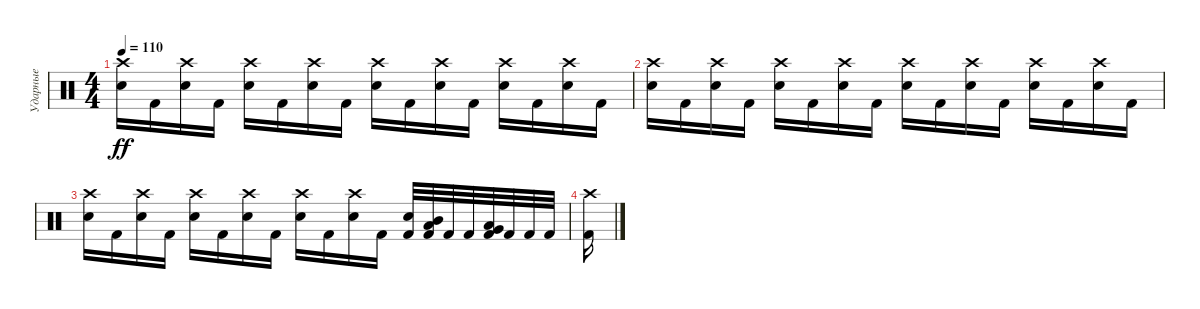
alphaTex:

\track ("Ударные" "Ударные") {instrument percussion}
\staff {score}
\articulation defaults
\ts (4 4)
\tempo 110
\clef neutral
\ks c
("Crash high (hit)" "Snare (hit) 2").16{dy ff} "Kick (hit) 2".16 ("Crash high (hit)" "Snare (hit) 2").16 "Kick (hit) 2".16 ("Crash high (hit)" "Snare (hit) 2").16 "Kick (hit) 2".16 ("Crash high (hit)" "Snare (hit) 2").16 "Kick (hit) 2".16 ("Crash high (hit)" "Snare (hit) 2").16 "Kick (hit) 2".16 ("Crash high (hit)" "Snare (hit) 2").16 "Kick (hit) 2".16 ("Crash high (hit)" "Snare (hit) 2").16 "Kick (hit) 2".16 ("Crash high (hit)" "Snare (hit) 2").16 "Kick (hit) 2".16 |
("Crash high (hit)" "Snare (hit) 2").16 "Kick (hit) 2".16 ("Crash high (hit)" "Snare (hit) 2").16 "Kick (hit) 2".16 ("Crash high (hit)" "Snare (hit) 2").16 "Kick (hit) 2".16 ("Crash high (hit)" "Snare (hit) 2").16 "Kick (hit) 2".16 ("Crash high (hit)" "Snare (hit) 2").16 "Kick (hit) 2".16 ("Crash high (hit)" "Snare (hit) 2").16 "Kick (hit) 2".16 ("Crash high (hit)" "Snare (hit) 2").16 "Kick (hit) 2".16 ("Crash high (hit)" "Snare (hit) 2").16 "Kick (hit) 2".16 |
("Crash high (hit)" "Snare (hit) 2").16 "Kick (hit) 2".16 ("Crash high (hit)" "Snare (hit) 2").16 "Kick (hit) 2".16 ("Crash high (hit)" "Snare (hit) 2").16 "Kick (hit) 2".16 ("Crash high (hit)" "Snare (hit) 2").16 "Kick (hit) 2".16 ("Crash high (hit)" "Snare (hit) 2").16 "Kick (hit) 2".16 ("Crash high (hit)" "Snare (hit) 2").16 "Kick (hit) 2".16 ("Snare (hit) 2" "Kick (hit) 2").32 ("Low Tom (hit)" "Mid Tom (hit)" "Kick (hit) 2").32 "Kick (hit) 2".32 "Kick (hit) 2".32 ("Very Low Tom (hit)" "Low Tom (hit)" "Kick (hit) 2").32 "Kick (hit) 2".32 "Kick (hit) 2".32 "Kick (hit) 2".32 |
("Crash high (hit)" "Kick (hit) 2").16
